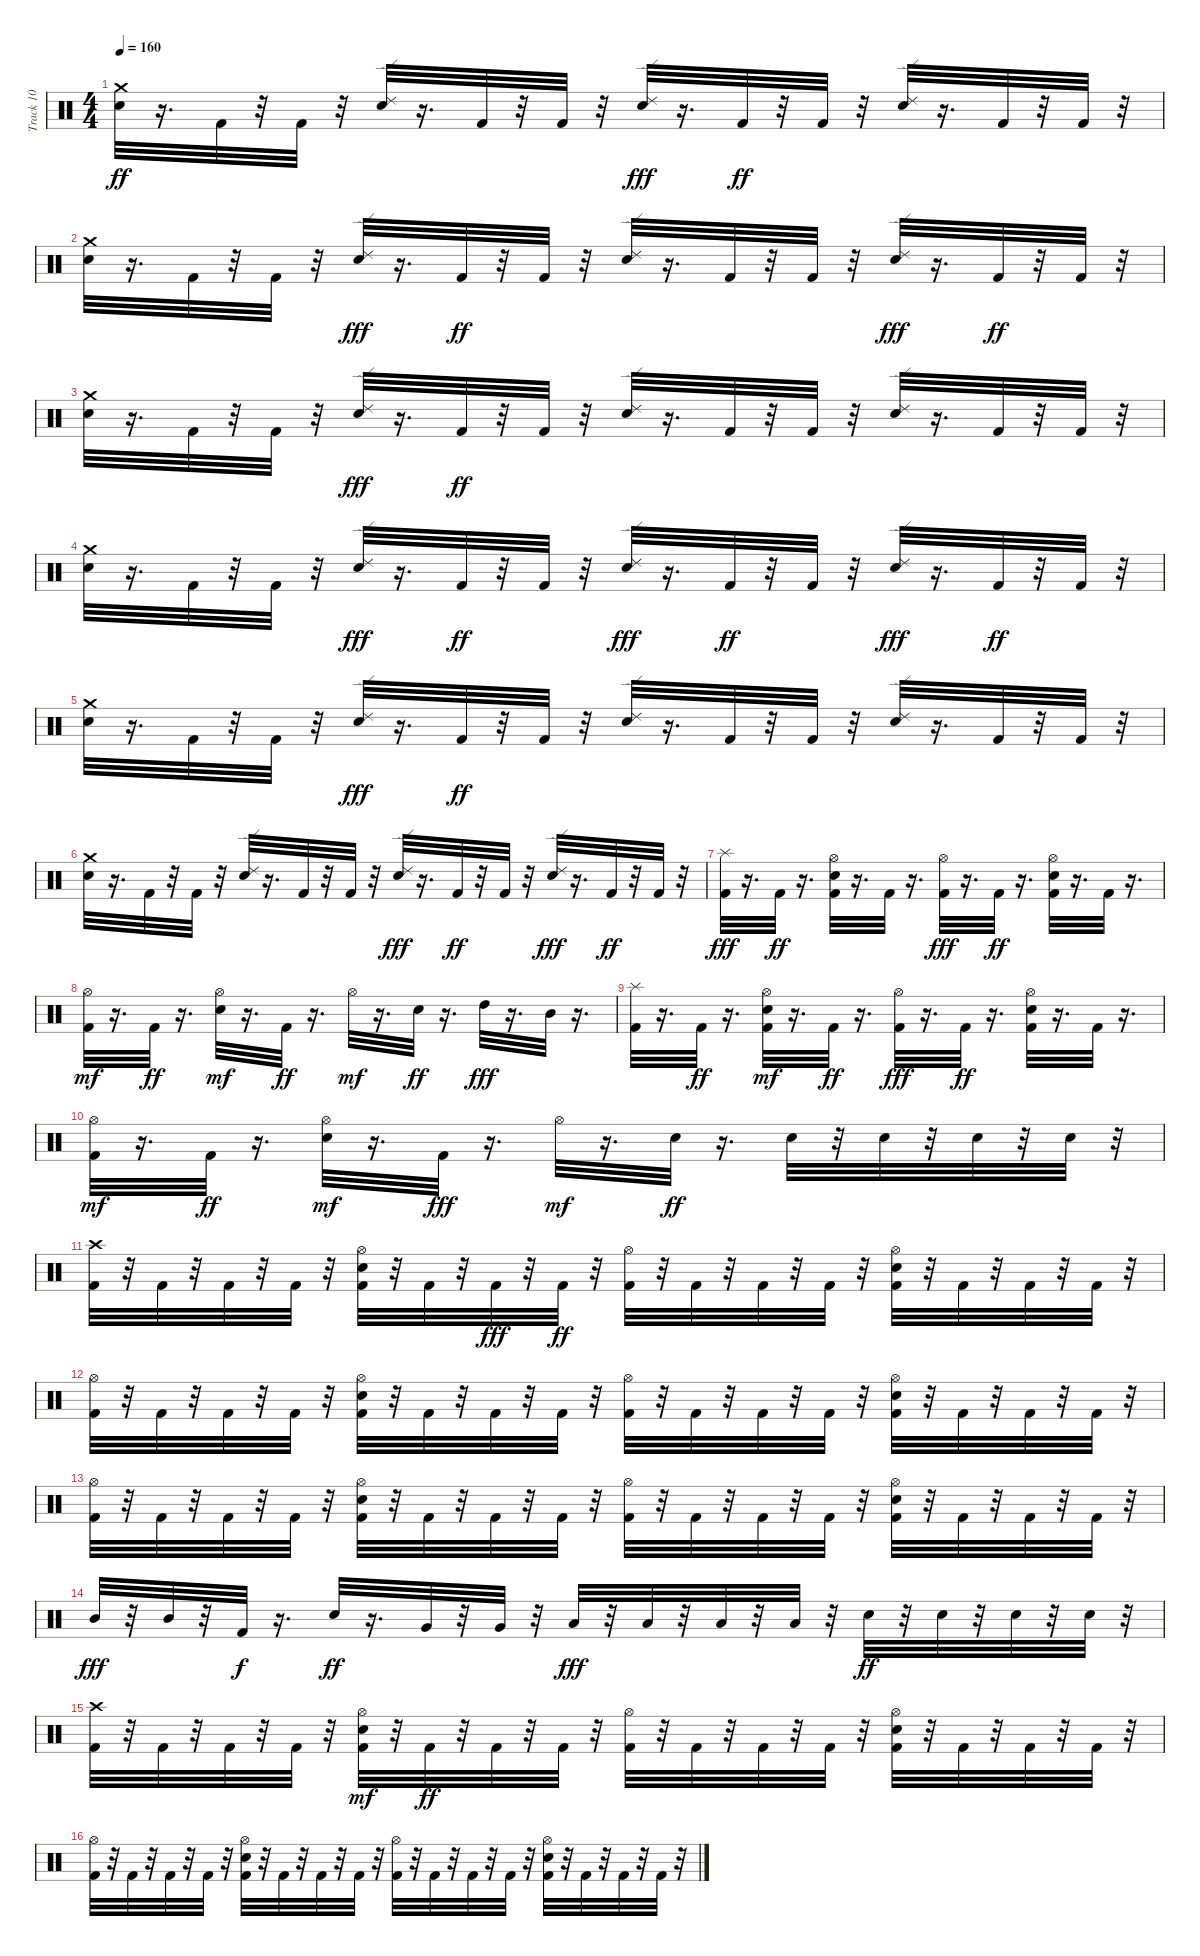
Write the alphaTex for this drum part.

\track ("Track 10" "Track 10") {instrument percussion}
\staff {score}
\articulation defaults
\ts (4 4)
\tempo 160
\clef neutral
\ks c
("Electric Snare (hit)" "Crash medium (hit)").32{dy ff} r.16{d} "Kick (hit) 2".32 r.32 "Kick (hit) 2".32 r.32 ("Ride (edge) 2" "Electric Snare (hit)").32 r.16{d} "Kick (hit) 2".32 r.32 "Kick (hit) 2".32 r.32 ("Electric Snare (hit)" "Ride (edge) 2").32{dy fff} r.16{d} "Kick (hit) 2".32{dy ff} r.32 "Kick (hit) 2".32 r.32 ("Ride (edge) 2" "Electric Snare (hit)").32 r.16{d} "Kick (hit) 2".32 r.32 "Kick (hit) 2".32 r.32 |
("Crash medium (hit)" "Electric Snare (hit)").32 r.16{d} "Kick (hit) 2".32 r.32 "Kick (hit) 2".32 r.32 ("Electric Snare (hit)" "Ride (edge) 2").32{dy fff} r.16{d} "Kick (hit) 2".32{dy ff} r.32 "Kick (hit) 2".32 r.32 ("Ride (edge) 2" "Electric Snare (hit)").32 r.16{d} "Kick (hit) 2".32 r.32 "Kick (hit) 2".32 r.32 ("Electric Snare (hit)" "Ride (edge) 2").32{dy fff} r.16{d} "Kick (hit) 2".32{dy ff} r.32 "Kick (hit) 2".32 r.32 |
("Electric Snare (hit)" "Crash medium (hit)").32 r.16{d} "Kick (hit) 2".32 r.32 "Kick (hit) 2".32 r.32 ("Electric Snare (hit)" "Ride (edge) 2").32{dy fff} r.16{d} "Kick (hit) 2".32{dy ff} r.32 "Kick (hit) 2".32 r.32 ("Ride (edge) 2" "Electric Snare (hit)").32 r.16{d} "Kick (hit) 2".32 r.32 "Kick (hit) 2".32 r.32 ("Ride (edge) 2" "Electric Snare (hit)").32 r.16{d} "Kick (hit) 2".32 r.32 "Kick (hit) 2".32 r.32 |
("Crash medium (hit)" "Electric Snare (hit)").32 r.16{d} "Kick (hit) 2".32 r.32 "Kick (hit) 2".32 r.32 ("Electric Snare (hit)" "Ride (edge) 2").32{dy fff} r.16{d} "Kick (hit) 2".32{dy ff} r.32 "Kick (hit) 2".32 r.32 ("Electric Snare (hit)" "Ride (edge) 2").32{dy fff} r.16{d} "Kick (hit) 2".32{dy ff} r.32 "Kick (hit) 2".32 r.32 ("Electric Snare (hit)" "Ride (edge) 2").32{dy fff} r.16{d} "Kick (hit) 2".32{dy ff} r.32 "Kick (hit) 2".32 r.32 |
("Electric Snare (hit)" "Crash medium (hit)").32 r.16{d} "Kick (hit) 2".32 r.32 "Kick (hit) 2".32 r.32 ("Electric Snare (hit)" "Ride (edge) 2").32{dy fff} r.16{d} "Kick (hit) 2".32{dy ff} r.32 "Kick (hit) 2".32 r.32 ("Ride (edge) 2" "Electric Snare (hit)").32 r.16{d} "Kick (hit) 2".32 r.32 "Kick (hit) 2".32 r.32 ("Ride (edge) 2" "Electric Snare (hit)").32 r.16{d} "Kick (hit) 2".32 r.32 "Kick (hit) 2".32 r.32 |
("Crash medium (hit)" "Electric Snare (hit)").32 r.16{d} "Kick (hit) 2".32 r.32 "Kick (hit) 2".32 r.32 ("Ride (edge) 2" "Electric Snare (hit)").32 r.16{d} "Kick (hit) 2".32 r.32 "Kick (hit) 2".32 r.32 ("Electric Snare (hit)" "Ride (edge) 2").32{dy fff} r.16{d} "Kick (hit) 2".32{dy ff} r.32 "Kick (hit) 2".32 r.32 ("Electric Snare (hit)" "Ride (edge) 2").32{dy fff} r.16{d} "Kick (hit) 2".32{dy ff} r.32 "Kick (hit) 2".32 r.32 |
("Splash (hit)" "Kick (hit) 2").32{dy fff} r.16{d} "Kick (hit) 2".32{dy ff} r.16{d} ("Electric Snare (hit)" "Hi-Hat (open)" "Kick (hit) 2").32 r.16{d} "Kick (hit) 2".32 r.16{d} ("Hi-Hat (open)" "Kick (hit) 2").32{dy fff} r.16{d} "Kick (hit) 2".32{dy ff} r.16{d} ("Electric Snare (hit)" "Hi-Hat (open)" "Kick (hit) 2").32 r.16{d} "Kick (hit) 2".32 r.16{d} |
("Kick (hit) 2" "Hi-Hat (open)").32{dy mf} r.16{d} "Kick (hit) 2".32{dy ff} r.16{d} ("Electric Snare (hit)" "Hi-Hat (open)").32{dy mf} r.16{d} "Kick (hit) 2".32{dy ff} r.16{d} "Hi-Hat (open)".32{dy mf} r.16{d} "Electric Snare (hit)".32{dy ff} r.16{d} "High Tom (hit)".32{dy fff} r.16{d} "Mid Tom (hit)".32 r.16{d} |
("Splash (hit)" "Kick (hit) 2").32 r.16{d} "Kick (hit) 2".32{dy ff} r.16{d} ("Kick (hit) 2" "Electric Snare (hit)" "Hi-Hat (open)").32{dy mf} r.16{d} "Kick (hit) 2".32{dy ff} r.16{d} ("Hi-Hat (open)" "Kick (hit) 2").32{dy fff} r.16{d} "Kick (hit) 2".32{dy ff} r.16{d} ("Hi-Hat (open)" "Electric Snare (hit)" "Kick (hit) 2").32 r.16{d} "Kick (hit) 2".32 r.16{d} |
("Kick (hit) 2" "Hi-Hat (open)").32{dy mf} r.16{d} "Kick (hit) 2".32{dy ff} r.16{d} ("Electric Snare (hit)" "Hi-Hat (open)").32{dy mf} r.16{d} "Kick (hit) 2".32{dy fff} r.16{d} "Hi-Hat (open)".32{dy mf} r.16{d} "Electric Snare (hit)".32{dy ff} r.16{d} "Electric Snare (hit)".32 r.32 "Electric Snare (hit)".32 r.32 "Electric Snare (hit)".32 r.32 "Electric Snare (hit)".32 r.32 |
("Kick (hit) 2" "Crash high (hit)").32 r.32 "Kick (hit) 2".32 r.32 "Kick (hit) 2".32 r.32 "Kick (hit) 2".32 r.32 ("Kick (hit) 2" "Hi-Hat (open)" "Electric Snare (hit)").32 r.32 "Kick (hit) 2".32 r.32 "Kick (hit) 2".32{dy fff} r.32 "Kick (hit) 2".32{dy ff} r.32 ("Hi-Hat (open)" "Kick (hit) 2").32 r.32 "Kick (hit) 2".32 r.32 "Kick (hit) 2".32 r.32 "Kick (hit) 2".32 r.32 ("Hi-Hat (open)" "Kick (hit) 2" "Electric Snare (hit)").32 r.32 "Kick (hit) 2".32 r.32 "Kick (hit) 2".32 r.32 "Kick (hit) 2".32 r.32 |
("Hi-Hat (open)" "Kick (hit) 2").32 r.32 "Kick (hit) 2".32 r.32 "Kick (hit) 2".32 r.32 "Kick (hit) 2".32 r.32 ("Electric Snare (hit)" "Hi-Hat (open)" "Kick (hit) 2").32 r.32 "Kick (hit) 2".32 r.32 "Kick (hit) 2".32 r.32 "Kick (hit) 2".32 r.32 ("Hi-Hat (open)" "Kick (hit) 2").32 r.32 "Kick (hit) 2".32 r.32 "Kick (hit) 2".32 r.32 "Kick (hit) 2".32 r.32 ("Electric Snare (hit)" "Hi-Hat (open)" "Kick (hit) 2").32 r.32 "Kick (hit) 2".32 r.32 "Kick (hit) 2".32 r.32 "Kick (hit) 2".32 r.32 |
("Hi-Hat (open)" "Kick (hit) 2").32 r.32 "Kick (hit) 2".32 r.32 "Kick (hit) 2".32 r.32 "Kick (hit) 2".32 r.32 ("Hi-Hat (open)" "Electric Snare (hit)" "Kick (hit) 2").32 r.32 "Kick (hit) 2".32 r.32 "Kick (hit) 2".32 r.32 "Kick (hit) 2".32 r.32 ("Hi-Hat (open)" "Kick (hit) 2").32 r.32 "Kick (hit) 2".32 r.32 "Kick (hit) 2".32 r.32 "Kick (hit) 2".32 r.32 ("Hi-Hat (open)" "Electric Snare (hit)" "Kick (hit) 2").32 r.32 "Kick (hit) 2".32 r.32 "Kick (hit) 2".32 r.32 "Kick (hit) 2".32 r.32 |
"Mid Tom (hit)".32{dy fff} r.32 "Mid Tom (hit)".32 r.32 "Kick (hit) 2".32{dy f} r.16{d} "Electric Snare (hit)".32{dy ff} r.16{d} "Very Low Tom (hit)".32 r.32 "Very Low Tom (hit)".32 r.32 "Low Tom (hit)".32{dy fff} r.32 "Low Tom (hit)".32 r.32 "Low Tom (hit)".32 r.32 "Low Tom (hit)".32 r.32 "Electric Snare (hit)".32{dy ff} r.32 "Electric Snare (hit)".32 r.32 "Electric Snare (hit)".32 r.32 "Electric Snare (hit)".32 r.32 |
("Kick (hit) 2" "Crash high (hit)").32 r.32 "Kick (hit) 2".32 r.32 "Kick (hit) 2".32 r.32 "Kick (hit) 2".32 r.32 ("Kick (hit) 2" "Electric Snare (hit)" "Hi-Hat (open)").32{dy mf} r.32 "Kick (hit) 2".32{dy ff} r.32 "Kick (hit) 2".32 r.32 "Kick (hit) 2".32 r.32 ("Hi-Hat (open)" "Kick (hit) 2").32 r.32 "Kick (hit) 2".32 r.32 "Kick (hit) 2".32 r.32 "Kick (hit) 2".32 r.32 ("Electric Snare (hit)" "Hi-Hat (open)" "Kick (hit) 2").32 r.32 "Kick (hit) 2".32 r.32 "Kick (hit) 2".32 r.32 "Kick (hit) 2".32 r.32 |
("Hi-Hat (open)" "Kick (hit) 2").32 r.32 "Kick (hit) 2".32 r.32 "Kick (hit) 2".32 r.32 "Kick (hit) 2".32 r.32 ("Hi-Hat (open)" "Electric Snare (hit)" "Kick (hit) 2").32 r.32 "Kick (hit) 2".32 r.32 "Kick (hit) 2".32 r.32 "Kick (hit) 2".32 r.32 ("Hi-Hat (open)" "Kick (hit) 2").32 r.32 "Kick (hit) 2".32 r.32 "Kick (hit) 2".32 r.32 "Kick (hit) 2".32 r.32 ("Electric Snare (hit)" "Hi-Hat (open)" "Kick (hit) 2").32 r.32 "Kick (hit) 2".32 r.32 "Kick (hit) 2".32 r.32 "Kick (hit) 2".32 r.32
